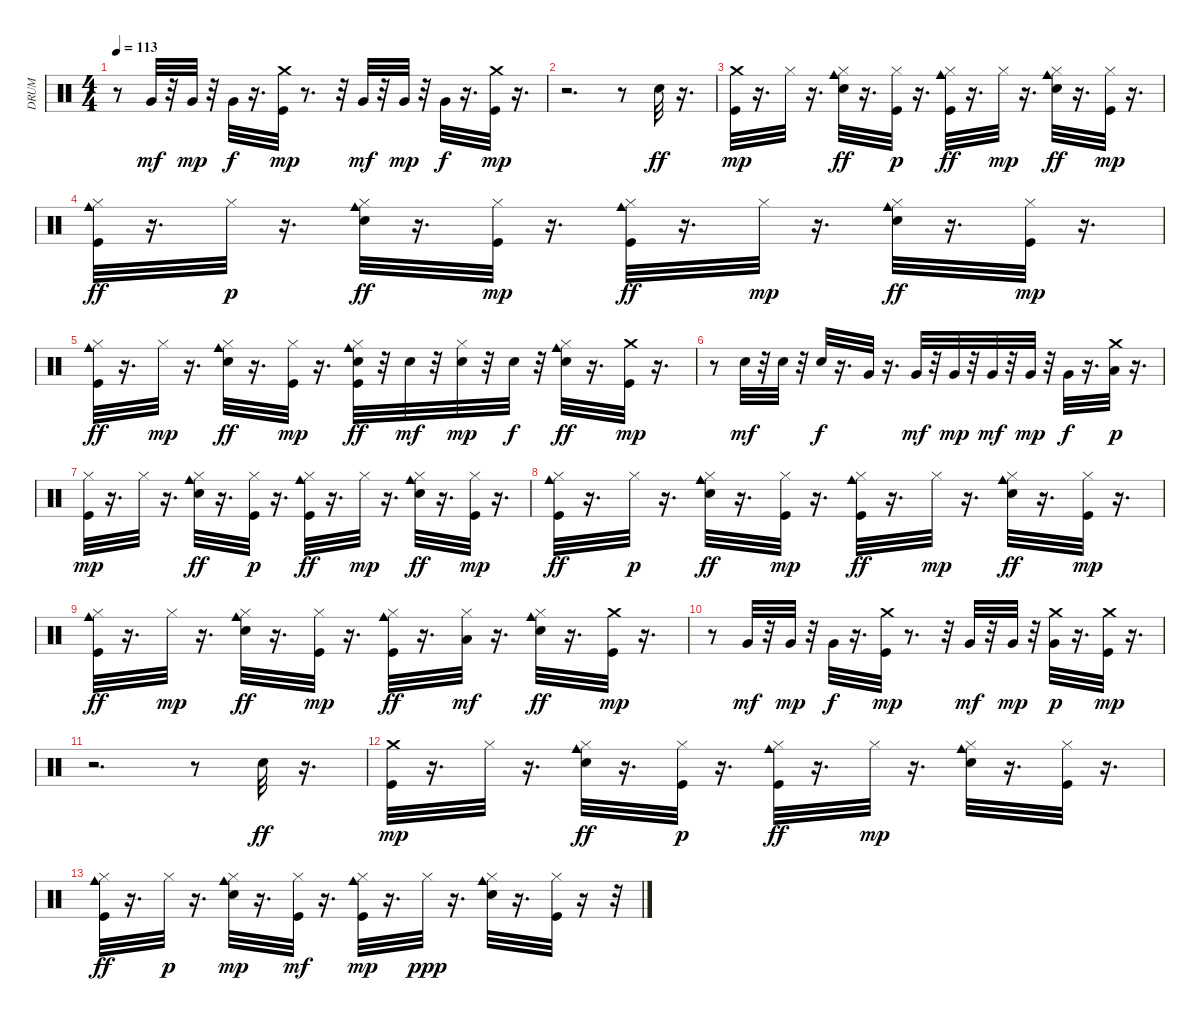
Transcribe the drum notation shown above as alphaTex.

\track ("DRUM" "DRUM") {instrument percussion}
\staff {score}
\articulation defaults
\ts (4 4)
\tempo 113
\clef neutral
\ks c
r.8{dy mp} "Very Low Tom (hit)".32{dy mf} r.32 "Very Low Tom (hit)".32{dy mp} r.32 "Very Low Tom (hit)".32{dy f} r.16{d} ("Kick (hit)" "Crash medium (hit)").32{dy mp} r.8{d} r.32 "Very Low Tom (hit)".32{dy mf} r.32 "Very Low Tom (hit)".32{dy mp} r.32 "Very Low Tom (hit)".32{dy f} r.16{d} ("Kick (hit)" "Crash medium (hit)").32{dy mp} r.16{d} |
r.2{d} r.8 "Snare (hit) 2".32{dy ff} r.16{d} |
("Kick (hit)" "Crash medium (hit)").32{dy mp} r.16{d} "Hi-Hat (closed)".32 r.16{d} ("Cowbell medium (hit)" "Hi-Hat (closed)" "Snare (hit) 2").32{dy ff} r.16{d} ("Hi-Hat (closed)" "Kick (hit)").32{dy p} r.16{d} ("Cowbell medium (hit)" "Hi-Hat (closed)" "Kick (hit)").32{dy ff} r.16{d} "Hi-Hat (closed)".32{dy mp} r.16{d} ("Cowbell medium (hit)" "Hi-Hat (closed)" "Snare (hit) 2").32{dy ff} r.16{d} ("Hi-Hat (closed)" "Kick (hit)").32{dy mp} r.16{d} |
("Cowbell medium (hit)" "Hi-Hat (closed)" "Kick (hit)").32{dy ff} r.16{d} "Hi-Hat (closed)".32{dy p} r.16{d} ("Cowbell medium (hit)" "Hi-Hat (closed)" "Snare (hit) 2").32{dy ff} r.16{d} ("Hi-Hat (closed)" "Kick (hit)").32{dy mp} r.16{d} ("Cowbell medium (hit)" "Hi-Hat (closed)" "Kick (hit)").32{dy ff} r.16{d} "Hi-Hat (closed)".32{dy mp} r.16{d} ("Cowbell medium (hit)" "Hi-Hat (closed)" "Snare (hit) 2").32{dy ff} r.16{d} ("Hi-Hat (closed)" "Kick (hit)").32{dy mp} r.16{d} |
("Cowbell medium (hit)" "Hi-Hat (closed)" "Kick (hit)").32{dy ff} r.16{d} "Hi-Hat (closed)".32{dy mp} r.16{d} ("Cowbell medium (hit)" "Hi-Hat (closed)" "Snare (hit) 2").32{dy ff} r.16{d} ("Hi-Hat (closed)" "Kick (hit)").32{dy mp} r.16{d} ("Cowbell medium (hit)" "Hi-Hat (closed)" "Kick (hit)" "Snare (hit) 2").32{dy ff} r.32 "Snare (hit) 2".32{dy mf} r.32 ("Hi-Hat (closed)" "Snare (hit) 2").32{dy mp} r.32 "Snare (hit) 2".32{dy f} r.32 ("Cowbell medium (hit)" "Hi-Hat (closed)" "Snare (hit) 2").32{dy ff} r.16{d} ("Kick (hit)" "Crash medium (hit)").32{dy mp} r.16{d} |
r.8 "Snare (hit) 2".32{dy mf} r.32 "Snare (hit) 2".32 r.32 "Snare (hit) 2".32{dy f} r.16{d} "Very Low Tom (hit)".32 r.16{d} "Very Low Tom (hit)".32{dy mf} r.32 "Very Low Tom (hit)".32{dy mp} r.32 "Very Low Tom (hit)".32{dy mf} r.32 "Very Low Tom (hit)".32{dy mp} r.32 "Very Low Tom (hit)".32{dy f} r.16{d} ("Low Floor Tom (hit)" "Crash medium (hit)").32{dy p} r.16{d} |
("Kick (hit)" "Hi-Hat (closed)").32{dy mp} r.16{d} "Hi-Hat (closed)".32 r.16{d} ("Cowbell medium (hit)" "Hi-Hat (closed)" "Snare (hit) 2").32{dy ff} r.16{d} ("Hi-Hat (closed)" "Kick (hit)").32{dy p} r.16{d} ("Cowbell medium (hit)" "Hi-Hat (closed)" "Kick (hit)").32{dy ff} r.16{d} "Hi-Hat (closed)".32{dy mp} r.16{d} ("Cowbell medium (hit)" "Hi-Hat (closed)" "Snare (hit) 2").32{dy ff} r.16{d} ("Hi-Hat (closed)" "Kick (hit)").32{dy mp} r.16{d} |
("Cowbell medium (hit)" "Hi-Hat (closed)" "Kick (hit)").32{dy ff} r.16{d} "Hi-Hat (closed)".32{dy p} r.16{d} ("Cowbell medium (hit)" "Hi-Hat (closed)" "Snare (hit) 2").32{dy ff} r.16{d} ("Hi-Hat (closed)" "Kick (hit)").32{dy mp} r.16{d} ("Cowbell medium (hit)" "Hi-Hat (closed)" "Kick (hit)").32{dy ff} r.16{d} "Hi-Hat (closed)".32{dy mp} r.16{d} ("Cowbell medium (hit)" "Hi-Hat (closed)" "Snare (hit) 2").32{dy ff} r.16{d} ("Hi-Hat (closed)" "Kick (hit)").32{dy mp} r.16{d} |
("Cowbell medium (hit)" "Hi-Hat (closed)" "Kick (hit)").32{dy ff} r.16{d} "Hi-Hat (closed)".32{dy mp} r.16{d} ("Cowbell medium (hit)" "Hi-Hat (closed)" "Snare (hit) 2").32{dy ff} r.16{d} ("Hi-Hat (closed)" "Kick (hit)").32{dy mp} r.16{d} ("Cowbell medium (hit)" "Hi-Hat (closed)" "Kick (hit)").32{dy ff} r.16{d} ("Hi-Hat (closed)" "Low Tom (hit)").32{dy mf} r.16{d} ("Cowbell medium (hit)" "Hi-Hat (closed)" "Snare (hit) 2").32{dy ff} r.16{d} ("Kick (hit)" "Crash medium (hit)").32{dy mp} r.16{d} |
r.8 "Very Low Tom (hit)".32{dy mf} r.32 "Very Low Tom (hit)".32{dy mp} r.32 "Very Low Tom (hit)".32{dy f} r.16{d} ("Kick (hit)" "Crash medium (hit)").32{dy mp} r.8{d} r.32 "Very Low Tom (hit)".32{dy mf} r.32 "Very Low Tom (hit)".32{dy mp} r.32 ("Very Low Tom (hit)" "Crash medium (hit)").32{dy p} r.16{d} ("Kick (hit)" "Crash medium (hit)").32{dy mp} r.16{d} |
r.2{d} r.8 "Snare (hit) 2".32{dy ff} r.16{d} |
("Kick (hit)" "Crash medium (hit)").32{dy mp} r.16{d} "Hi-Hat (closed)".32 r.16{d} ("Cowbell medium (hit)" "Hi-Hat (closed)" "Snare (hit) 2").32{dy ff} r.16{d} ("Hi-Hat (closed)" "Kick (hit)").32{dy p} r.16{d} ("Cowbell medium (hit)" "Hi-Hat (closed)" "Kick (hit)").32{dy ff} r.16{d} "Hi-Hat (closed)".32{dy mp} r.16{d} ("Cowbell medium (hit)" "Hi-Hat (closed)" "Snare (hit) 2").32 r.16{d} ("Hi-Hat (closed)" "Kick (hit)").32 r.16{d} |
("Cowbell medium (hit)" "Hi-Hat (closed)" "Kick (hit)").32{dy ff} r.16{d} "Hi-Hat (closed)".32{dy p} r.16{d} ("Cowbell medium (hit)" "Hi-Hat (closed)" "Snare (hit) 2").32{dy mp} r.16{d} ("Hi-Hat (closed)" "Kick (hit)").32{dy mf} r.16{d} ("Cowbell medium (hit)" "Hi-Hat (closed)" "Kick (hit)").32{dy mp} r.16{d} "Hi-Hat (closed)".32{dy ppp} r.16{d} ("Cowbell medium (hit)" "Hi-Hat (closed)" "Snare (hit) 2").32 r.16{d} ("Hi-Hat (closed)" "Kick (hit)").32 r.16 r.32
